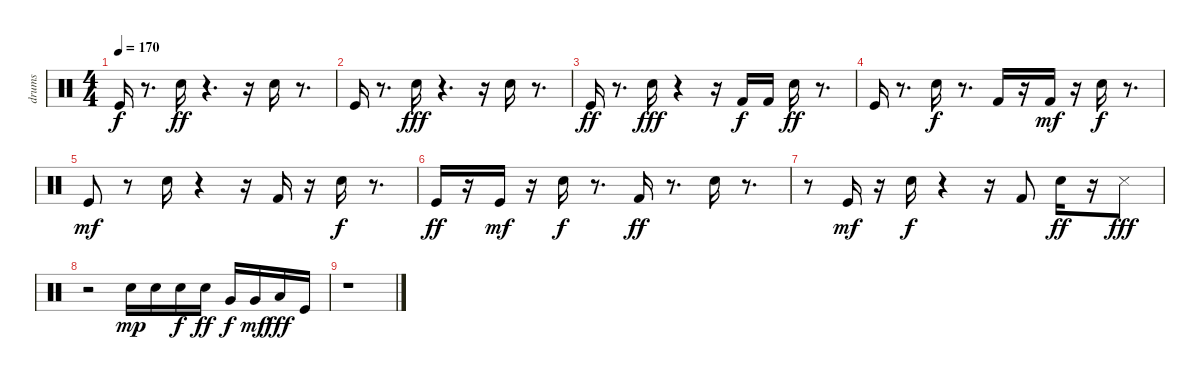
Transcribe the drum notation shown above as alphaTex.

\track ("drums" "drums") {instrument percussion}
\staff {score}
\articulation defaults
\ts (4 4)
\tempo 170
\clef neutral
\ks c "Kick (hit)".16{dy f}
r.8{d} "Snare (hit) 2".16{dy ff} r.4{d} r.16 "Electric Snare (hit)".16 r.8{d} |
"Kick (hit)".16 r.8{d} "Snare (hit) 2".16{dy fff} r.4{d} r.16 "Electric Snare (hit)".16 r.8{d} |
"Kick (hit)".16{dy ff} r.8{d} "Snare (hit) 2".16{dy fff} r.4 r.16 "Kick (hit) 2".16{dy f} "Kick (hit) 2".16 "Electric Snare (hit)".16{dy ff} r.8{d} |
"Kick (hit)".16 r.8{d} "Snare (hit) 2".16{dy f} r.8{d} "Kick (hit) 2".16 r.16 "Kick (hit) 2".16{dy mf} r.16 "Snare (hit) 2".16{dy f} r.8{d} |
"Kick (hit)".8{dy mf} r.8 "Snare (hit) 2".16 r.4 r.16 "Kick (hit) 2".16 r.16 "Electric Snare (hit)".16{dy f} r.8{d} |
"Kick (hit)".16{dy ff} r.16 "Kick (hit)".16{dy mf} r.16 "Snare (hit) 2".16{dy f} r.8{d} "Kick (hit) 2".16{dy ff} r.8{d} "Electric Snare (hit)".16 r.8{d} |
r.8 "Kick (hit)".16{dy mf} r.16 "Snare (hit) 2".16{dy f} r.4 r.16 "Kick (hit) 2".8 "Electric Snare (hit)".16{dy ff} r.16 "Snare (side stick) 3".8{dy fff} |
r.2 "Snare (hit) 2".16{dy mp} "Snare (hit) 2".16 "Snare (hit) 2".16{dy f} "Snare (hit) 2".16{dy ff} "Very Low Tom (hit)".16{dy f} "Very Low Tom (hit)".16{dy mf} "Low Floor Tom (hit)".16{dy fff} "Kick (hit)".16 |
r.1
